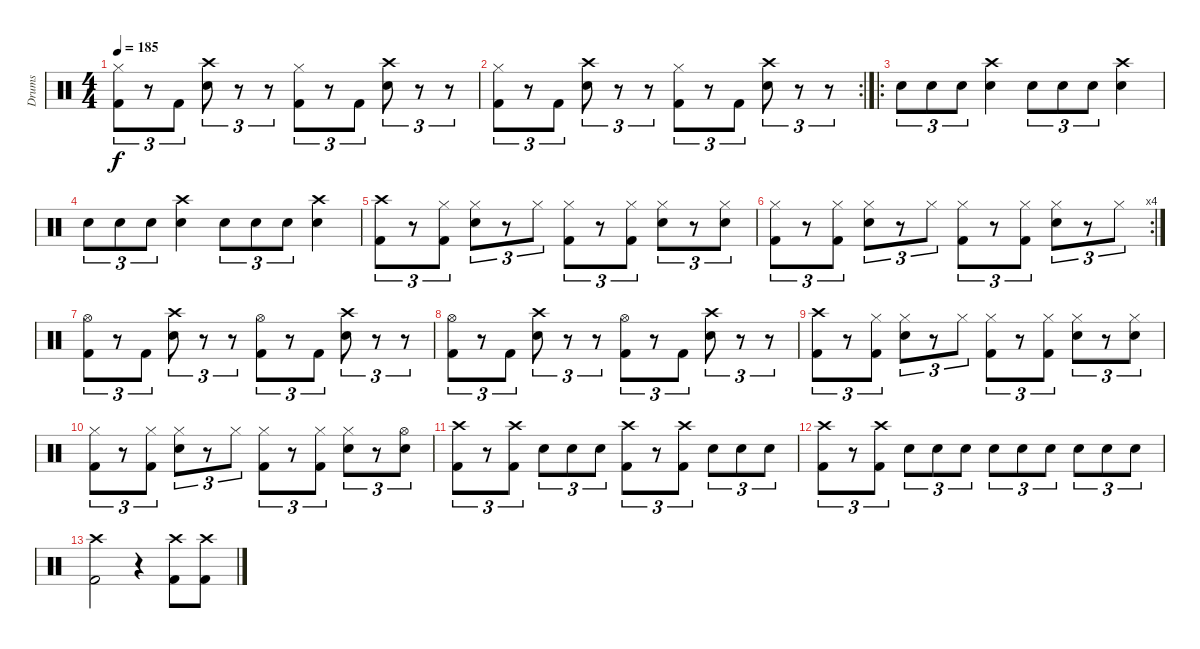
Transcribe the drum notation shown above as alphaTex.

\track ("Drums" "Drums") {instrument percussion}
\staff {score}
\articulation defaults
\ts (4 4)
\tempo 185
\clef neutral
\ks c
("Hi-Hat (closed)" "Kick (hit) 2").8{tu (3 2) dy f} r.8{tu (3 2)} "Kick (hit) 2".8{tu (3 2)} ("Crash high (hit)" "Electric Snare (hit)").8{tu (3 2)} r.8{tu (3 2)} r.8{tu (3 2)} ("Hi-Hat (closed)" "Kick (hit) 2").8{tu (3 2)} r.8{tu (3 2)} "Kick (hit) 2".8{tu (3 2)} ("Crash high (hit)" "Electric Snare (hit)").8{tu (3 2)} r.8{tu (3 2)} r.8{tu (3 2)} |
\rc 2
("Hi-Hat (closed)" "Kick (hit) 2").8{tu (3 2)} r.8{tu (3 2)} "Kick (hit) 2".8{tu (3 2)} ("Crash high (hit)" "Electric Snare (hit)").8{tu (3 2)} r.8{tu (3 2)} r.8{tu (3 2)} ("Hi-Hat (closed)" "Kick (hit) 2").8{tu (3 2)} r.8{tu (3 2)} "Kick (hit) 2".8{tu (3 2)} ("Crash high (hit)" "Electric Snare (hit)").8{tu (3 2)} r.8{tu (3 2)} r.8{tu (3 2)} |
\ro "Electric Snare (hit)".8{tu (3 2)} "Electric Snare (hit)".8{tu (3 2)} "Electric Snare (hit)".8{tu (3 2)}
("Crash high (hit)" "Electric Snare (hit)").4 "Electric Snare (hit)".8{tu (3 2)} "Electric Snare (hit)".8{tu (3 2)} "Electric Snare (hit)".8{tu (3 2)} ("Crash high (hit)" "Electric Snare (hit)").4 |
"Electric Snare (hit)".8{tu (3 2)} "Electric Snare (hit)".8{tu (3 2)} "Electric Snare (hit)".8{tu (3 2)} ("Crash high (hit)" "Electric Snare (hit)").4 "Electric Snare (hit)".8{tu (3 2)} "Electric Snare (hit)".8{tu (3 2)} "Electric Snare (hit)".8{tu (3 2)} ("Crash high (hit)" "Electric Snare (hit)").4 |
("Crash high (hit)" "Kick (hit) 2").8{tu (3 2)} r.8{tu (3 2)} ("Hi-Hat (closed)" "Kick (hit) 2").8{tu (3 2)} ("Hi-Hat (closed)" "Electric Snare (hit)").8{tu (3 2)} r.8{tu (3 2)} "Hi-Hat (closed)".8{tu (3 2)} ("Hi-Hat (closed)" "Kick (hit) 2").8{tu (3 2)} r.8{tu (3 2)} ("Hi-Hat (closed)" "Kick (hit) 2").8{tu (3 2)} ("Hi-Hat (closed)" "Electric Snare (hit)").8{tu (3 2)} r.8{tu (3 2)} ("Hi-Hat (closed)" "Electric Snare (hit)").8{tu (3 2)} |
\rc 4
("Hi-Hat (closed)" "Kick (hit) 2").8{tu (3 2)} r.8{tu (3 2)} ("Hi-Hat (closed)" "Kick (hit) 2").8{tu (3 2)} ("Hi-Hat (closed)" "Electric Snare (hit)").8{tu (3 2)} r.8{tu (3 2)} "Hi-Hat (closed)".8{tu (3 2)} ("Hi-Hat (closed)" "Kick (hit) 2").8{tu (3 2)} r.8{tu (3 2)} ("Hi-Hat (closed)" "Kick (hit) 2").8{tu (3 2)} ("Hi-Hat (closed)" "Electric Snare (hit)").8{tu (3 2)} r.8{tu (3 2)} "Hi-Hat (closed)".8{tu (3 2)} |
("Hi-Hat (open)" "Kick (hit) 2").8{tu (3 2)} r.8{tu (3 2)} "Kick (hit) 2".8{tu (3 2)} ("Crash high (hit)" "Electric Snare (hit)").8{tu (3 2)} r.8{tu (3 2)} r.8{tu (3 2)} ("Hi-Hat (open)" "Kick (hit) 2").8{tu (3 2)} r.8{tu (3 2)} "Kick (hit) 2".8{tu (3 2)} ("Crash high (hit)" "Electric Snare (hit)").8{tu (3 2)} r.8{tu (3 2)} r.8{tu (3 2)} |
("Hi-Hat (open)" "Kick (hit) 2").8{tu (3 2)} r.8{tu (3 2)} "Kick (hit) 2".8{tu (3 2)} ("Crash high (hit)" "Electric Snare (hit)").8{tu (3 2)} r.8{tu (3 2)} r.8{tu (3 2)} ("Hi-Hat (open)" "Kick (hit) 2").8{tu (3 2)} r.8{tu (3 2)} "Kick (hit) 2".8{tu (3 2)} ("Crash high (hit)" "Electric Snare (hit)").8{tu (3 2)} r.8{tu (3 2)} r.8{tu (3 2)} |
("Crash high (hit)" "Kick (hit) 2").8{tu (3 2)} r.8{tu (3 2)} ("Hi-Hat (closed)" "Kick (hit) 2").8{tu (3 2)} ("Hi-Hat (closed)" "Electric Snare (hit)").8{tu (3 2)} r.8{tu (3 2)} "Hi-Hat (closed)".8{tu (3 2)} ("Hi-Hat (closed)" "Kick (hit) 2").8{tu (3 2)} r.8{tu (3 2)} ("Hi-Hat (closed)" "Kick (hit) 2").8{tu (3 2)} ("Hi-Hat (closed)" "Electric Snare (hit)").8{tu (3 2)} r.8{tu (3 2)} ("Hi-Hat (closed)" "Electric Snare (hit)").8{tu (3 2)} |
("Hi-Hat (closed)" "Kick (hit) 2").8{tu (3 2)} r.8{tu (3 2)} ("Hi-Hat (closed)" "Kick (hit) 2").8{tu (3 2)} ("Hi-Hat (closed)" "Electric Snare (hit)").8{tu (3 2)} r.8{tu (3 2)} "Hi-Hat (closed)".8{tu (3 2)} ("Hi-Hat (closed)" "Kick (hit) 2").8{tu (3 2)} r.8{tu (3 2)} ("Hi-Hat (closed)" "Kick (hit) 2").8{tu (3 2)} ("Hi-Hat (closed)" "Electric Snare (hit)").8{tu (3 2)} r.8{tu (3 2)} ("Hi-Hat (open)" "Electric Snare (hit)").8{tu (3 2)} |
("Crash high (hit)" "Kick (hit) 2").8{tu (3 2)} r.8{tu (3 2)} ("Crash high (hit)" "Kick (hit) 2").8{tu (3 2)} "Electric Snare (hit)".8{tu (3 2)} "Electric Snare (hit)".8{tu (3 2)} "Electric Snare (hit)".8{tu (3 2)} ("Crash high (hit)" "Kick (hit) 2").8{tu (3 2)} r.8{tu (3 2)} ("Crash high (hit)" "Kick (hit) 2").8{tu (3 2)} "Electric Snare (hit)".8{tu (3 2)} "Electric Snare (hit)".8{tu (3 2)} "Electric Snare (hit)".8{tu (3 2)} |
("Crash high (hit)" "Kick (hit) 2").8{tu (3 2)} r.8{tu (3 2)} ("Crash high (hit)" "Kick (hit) 2").8{tu (3 2)} "Electric Snare (hit)".8{tu (3 2)} "Electric Snare (hit)".8{tu (3 2)} "Electric Snare (hit)".8{tu (3 2)} "Electric Snare (hit)".8{tu (3 2)} "Electric Snare (hit)".8{tu (3 2)} "Electric Snare (hit)".8{tu (3 2)} "Electric Snare (hit)".8{tu (3 2)} "Electric Snare (hit)".8{tu (3 2)} "Electric Snare (hit)".8{tu (3 2)} |
("Crash high (hit)" "Kick (hit) 2").2 r.4 ("Crash high (hit)" "Kick (hit) 2").8 ("Crash high (hit)" "Kick (hit) 2").8
